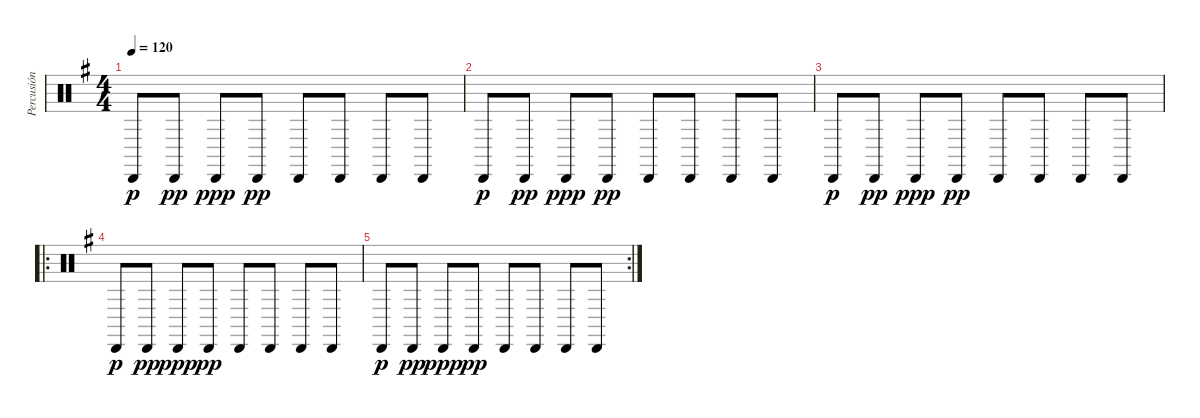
\track ("Percusión" "Percusión") {instrument percussion}
\staff {score}
\articulation defaults
\ts (4 4)
\tempo 120
\clef neutral
\ks g "Cabasa (hit)".8{dy p} "Cabasa (hit)".8{dy pp} "Cabasa (hit)".8{dy ppp} "Cabasa (hit)".8{dy pp} "Cabasa (hit)".8 "Cabasa (hit)".8 "Cabasa (hit)".8 "Cabasa (hit)".8
|
"Cabasa (hit)".8{dy p} "Cabasa (hit)".8{dy pp} "Cabasa (hit)".8{dy ppp} "Cabasa (hit)".8{dy pp} "Cabasa (hit)".8 "Cabasa (hit)".8 "Cabasa (hit)".8 "Cabasa (hit)".8 |
"Cabasa (hit)".8{dy p} "Cabasa (hit)".8{dy pp} "Cabasa (hit)".8{dy ppp} "Cabasa (hit)".8{dy pp} "Cabasa (hit)".8 "Cabasa (hit)".8 "Cabasa (hit)".8 "Cabasa (hit)".8 |
\ro "Cabasa (hit)".8{dy p} "Cabasa (hit)".8{dy pp} "Cabasa (hit)".8{dy ppp} "Cabasa (hit)".8{dy pp} "Cabasa (hit)".8 "Cabasa (hit)".8 "Cabasa (hit)".8 "Cabasa (hit)".8
|
\rc 2 "Cabasa (hit)".8{dy p} "Cabasa (hit)".8{dy pp} "Cabasa (hit)".8{dy ppp} "Cabasa (hit)".8{dy pp} "Cabasa (hit)".8 "Cabasa (hit)".8 "Cabasa (hit)".8 "Cabasa (hit)".8
